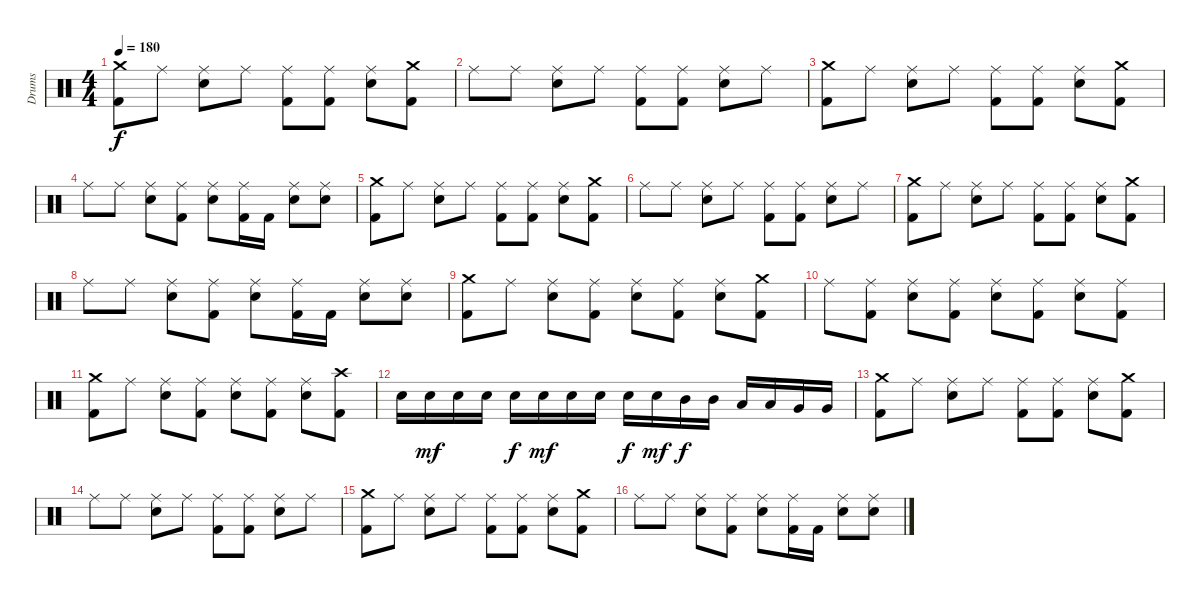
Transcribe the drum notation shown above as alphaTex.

\track ("Drums" "Drums") {instrument percussion}
\staff {score}
\articulation defaults
\ts (4 4)
\tempo 180
\clef neutral
\ks c
("Crash medium (hit)" "Kick (hit) 2").8{dy f} "Ride (middle)".8 ("Ride (middle)" "Electric Snare (hit)").8 "Ride (middle)".8 ("Ride (middle)" "Kick (hit) 2").8 ("Ride (middle)" "Kick (hit) 2").8 ("Ride (middle)" "Electric Snare (hit)").8 ("Crash medium (hit)" "Kick (hit) 2").8 |
"Ride (middle)".8 "Ride (middle)".8 ("Ride (middle)" "Electric Snare (hit)").8 "Ride (middle)".8 ("Ride (middle)" "Kick (hit) 2").8 ("Ride (middle)" "Kick (hit) 2").8 ("Ride (middle)" "Electric Snare (hit)").8 "Ride (middle)".8 |
("Crash medium (hit)" "Kick (hit) 2").8 "Ride (middle)".8 ("Ride (middle)" "Electric Snare (hit)").8 "Ride (middle)".8 ("Ride (middle)" "Kick (hit) 2").8 ("Ride (middle)" "Kick (hit) 2").8 ("Ride (middle)" "Electric Snare (hit)").8 ("Crash medium (hit)" "Kick (hit) 2").8 |
"Ride (middle)".8 "Ride (middle)".8 ("Ride (middle)" "Electric Snare (hit)").8 ("Ride (middle)" "Kick (hit) 2").8 ("Ride (middle)" "Electric Snare (hit)").8 ("Ride (middle)" "Kick (hit) 2").16 "Kick (hit) 2".16 ("Ride (middle)" "Electric Snare (hit)").8 ("Ride (middle)" "Electric Snare (hit)").8 |
("Crash medium (hit)" "Kick (hit) 2").8 "Ride (middle)".8 ("Ride (middle)" "Electric Snare (hit)").8 "Ride (middle)".8 ("Ride (middle)" "Kick (hit) 2").8 ("Ride (middle)" "Kick (hit) 2").8 ("Ride (middle)" "Electric Snare (hit)").8 ("Crash medium (hit)" "Kick (hit) 2").8 |
"Ride (middle)".8 "Ride (middle)".8 ("Ride (middle)" "Electric Snare (hit)").8 "Ride (middle)".8 ("Ride (middle)" "Kick (hit) 2").8 ("Ride (middle)" "Kick (hit) 2").8 ("Ride (middle)" "Electric Snare (hit)").8 "Ride (middle)".8 |
("Crash medium (hit)" "Kick (hit) 2").8 "Ride (middle)".8 ("Ride (middle)" "Electric Snare (hit)").8 "Ride (middle)".8 ("Ride (middle)" "Kick (hit) 2").8 ("Ride (middle)" "Kick (hit) 2").8 ("Ride (middle)" "Electric Snare (hit)").8 ("Crash medium (hit)" "Kick (hit) 2").8 |
"Ride (middle)".8 "Ride (middle)".8 ("Ride (middle)" "Electric Snare (hit)").8 ("Ride (middle)" "Kick (hit) 2").8 ("Ride (middle)" "Electric Snare (hit)").8 ("Ride (middle)" "Kick (hit) 2").16 "Kick (hit) 2".16 ("Ride (middle)" "Electric Snare (hit)").8 ("Ride (middle)" "Electric Snare (hit)").8 |
("Crash medium (hit)" "Kick (hit) 2").8 "Ride (middle)".8 ("Ride (middle)" "Electric Snare (hit)").8 ("Ride (middle)" "Kick (hit) 2").8 ("Ride (middle)" "Electric Snare (hit)").8 ("Ride (middle)" "Kick (hit) 2").8 ("Ride (middle)" "Electric Snare (hit)").8 ("Crash medium (hit)" "Kick (hit) 2").8 |
"Ride (middle)".8 ("Ride (middle)" "Kick (hit) 2").8 ("Ride (middle)" "Electric Snare (hit)").8 ("Ride (middle)" "Kick (hit) 2").8 ("Ride (middle)" "Electric Snare (hit)").8 ("Ride (middle)" "Kick (hit) 2").8 ("Ride (middle)" "Electric Snare (hit)").8 ("Ride (middle)" "Kick (hit) 2").8 |
("Crash medium (hit)" "Kick (hit) 2").8 "Ride (middle)".8 ("Ride (middle)" "Electric Snare (hit)").8 ("Ride (middle)" "Kick (hit) 2").8 ("Ride (middle)" "Electric Snare (hit)").8 ("Ride (middle)" "Kick (hit) 2").8 ("Ride (middle)" "Electric Snare (hit)").8 ("Crash high (hit)" "Kick (hit) 2").8 |
"Electric Snare (hit)".16 "Electric Snare (hit)".16{dy mf} "Electric Snare (hit)".16 "Electric Snare (hit)".16 "Electric Snare (hit)".16{dy f} "Electric Snare (hit)".16{dy mf} "Electric Snare (hit)".16 "Electric Snare (hit)".16 "Electric Snare (hit)".16{dy f} "Electric Snare (hit)".16{dy mf} "Mid Tom (hit)".16{dy f} "Mid Tom (hit)".16 "Low Tom (hit)".16 "Low Tom (hit)".16 "Very Low Tom (hit)".16 "Very Low Tom (hit)".16 |
("Crash medium (hit)" "Kick (hit) 2").8 "Ride (middle)".8 ("Ride (middle)" "Electric Snare (hit)").8 "Ride (middle)".8 ("Ride (middle)" "Kick (hit) 2").8 ("Ride (middle)" "Kick (hit) 2").8 ("Ride (middle)" "Electric Snare (hit)").8 ("Crash medium (hit)" "Kick (hit) 2").8 |
"Ride (middle)".8 "Ride (middle)".8 ("Ride (middle)" "Electric Snare (hit)").8 "Ride (middle)".8 ("Ride (middle)" "Kick (hit) 2").8 ("Ride (middle)" "Kick (hit) 2").8 ("Ride (middle)" "Electric Snare (hit)").8 "Ride (middle)".8 |
("Crash medium (hit)" "Kick (hit) 2").8 "Ride (middle)".8 ("Ride (middle)" "Electric Snare (hit)").8 "Ride (middle)".8 ("Ride (middle)" "Kick (hit) 2").8 ("Ride (middle)" "Kick (hit) 2").8 ("Ride (middle)" "Electric Snare (hit)").8 ("Crash medium (hit)" "Kick (hit) 2").8 |
"Ride (middle)".8 "Ride (middle)".8 ("Ride (middle)" "Electric Snare (hit)").8 ("Ride (middle)" "Kick (hit) 2").8 ("Ride (middle)" "Electric Snare (hit)").8 ("Ride (middle)" "Kick (hit) 2").16 "Kick (hit) 2".16 ("Ride (middle)" "Electric Snare (hit)").8 ("Ride (middle)" "Electric Snare (hit)").8
